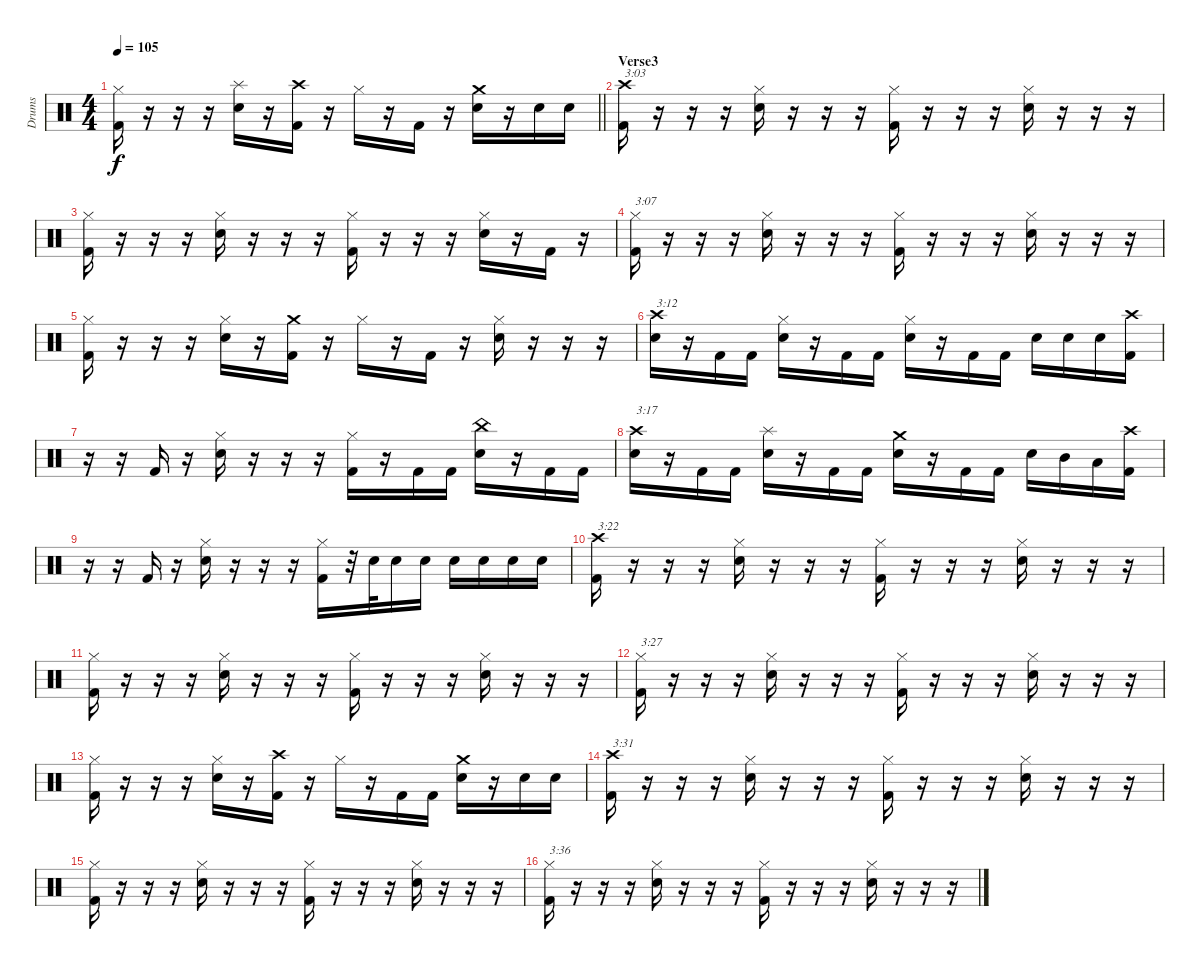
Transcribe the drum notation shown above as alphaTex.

\track ("Drums" "Drums") {instrument percussion}
\staff {score}
\articulation defaults
\ts (4 4)
\tempo 105
\clef neutral
\barLineRight lightlight
\ks c
("Hi-Hat (closed)" "Kick (hit) 2").16{dy f} r.16 r.16 r.16 ("Splash (hit)" "Electric Snare (hit)").16 r.16 ("Crash high (hit)" "Kick (hit) 2").16 r.16 "Hi-Hat (closed)".16 r.16 "Kick (hit) 2".16 r.16 ("Crash medium (hit)" "Electric Snare (hit)").16 r.16 "Electric Snare (hit)".16 "Electric Snare (hit)".16 |
\section ("" "Verse3")
("Crash high (hit)" "Kick (hit) 2").16{txt "3:03"} r.16 r.16 r.16 ("Hi-Hat (closed)" "Electric Snare (hit)").16 r.16 r.16 r.16 ("Hi-Hat (closed)" "Kick (hit) 2").16 r.16 r.16 r.16 ("Hi-Hat (closed)" "Electric Snare (hit)").16 r.16 r.16 r.16 |
("Hi-Hat (closed)" "Kick (hit) 2").16 r.16 r.16 r.16 ("Hi-Hat (closed)" "Electric Snare (hit)").16 r.16 r.16 r.16 ("Hi-Hat (closed)" "Kick (hit) 2").16 r.16 r.16 r.16 ("Hi-Hat (closed)" "Electric Snare (hit)").16 r.16 "Kick (hit) 2".16 r.16 |
("Hi-Hat (closed)" "Kick (hit) 2").16{txt "3:07"} r.16 r.16 r.16 ("Hi-Hat (closed)" "Electric Snare (hit)").16 r.16 r.16 r.16 ("Hi-Hat (closed)" "Kick (hit) 2").16 r.16 r.16 r.16 ("Hi-Hat (closed)" "Electric Snare (hit)").16 r.16 r.16 r.16 |
("Hi-Hat (closed)" "Kick (hit) 2").16 r.16 r.16 r.16 ("Hi-Hat (closed)" "Electric Snare (hit)").16 r.16 ("Crash medium (hit)" "Kick (hit) 2").16 r.16 "Hi-Hat (closed)".16 r.16 "Kick (hit) 2".16 r.16 ("Hi-Hat (closed)" "Electric Snare (hit)").16 r.16 r.16 r.16 |
("Crash high (hit)" "Electric Snare (hit)").16{txt "3:12"} r.16 "Kick (hit) 2".16 "Kick (hit) 2".16 ("Hi-Hat (closed)" "Electric Snare (hit)").16 r.16 "Kick (hit) 2".16 "Kick (hit) 2".16 ("Hi-Hat (closed)" "Electric Snare (hit)").16 r.16 "Kick (hit) 2".16 "Kick (hit) 2".16 "Electric Snare (hit)".16 "Electric Snare (hit)".16 "Electric Snare (hit)".16 ("Crash high (hit)" "Kick (hit) 2").16 |
r.16 r.16 "Kick (hit) 2".16 r.16 ("Hi-Hat (closed)" "Electric Snare (hit)").16 r.16 r.16 r.16 ("Hi-Hat (closed)" "Kick (hit) 2").16 r.16 "Kick (hit) 2".16 "Kick (hit) 2".16 ("China (hit)" "Electric Snare (hit)").16 r.16 "Kick (hit) 2".16 "Kick (hit) 2".16 |
("Crash high (hit)" "Electric Snare (hit)").16{txt "3:17"} r.16 "Kick (hit) 2".16 "Kick (hit) 2".16 ("Splash (hit)" "Electric Snare (hit)").16 r.16 "Kick (hit) 2".16 "Kick (hit) 2".16 ("Crash medium (hit)" "Electric Snare (hit)").16 r.16 "Kick (hit) 2".16 "Kick (hit) 2".16 "Electric Snare (hit)".16 "Mid Tom (hit)".16 "Low Tom (hit)".16 ("Crash high (hit)" "Kick (hit) 2").16 |
r.16 r.16 "Kick (hit) 2".16 r.16 ("Hi-Hat (closed)" "Electric Snare (hit)").16 r.16 r.16 r.16 ("Hi-Hat (closed)" "Kick (hit) 2").16 r.32 "Electric Snare (hit)".32 "Electric Snare (hit)".16 "Electric Snare (hit)".16 "Electric Snare (hit)".16 "Electric Snare (hit)".16 "Electric Snare (hit)".16 "Electric Snare (hit)".16 |
("Crash high (hit)" "Kick (hit) 2").16{txt "3:22"} r.16 r.16 r.16 ("Hi-Hat (closed)" "Electric Snare (hit)").16 r.16 r.16 r.16 ("Hi-Hat (closed)" "Kick (hit) 2").16 r.16 r.16 r.16 ("Hi-Hat (closed)" "Electric Snare (hit)").16 r.16 r.16 r.16 |
("Hi-Hat (closed)" "Kick (hit) 2").16 r.16 r.16 r.16 ("Hi-Hat (closed)" "Electric Snare (hit)").16 r.16 r.16 r.16 ("Hi-Hat (closed)" "Kick (hit) 2").16 r.16 r.16 r.16 ("Hi-Hat (closed)" "Electric Snare (hit)").16 r.16 r.16 r.16 |
("Hi-Hat (closed)" "Kick (hit) 2").16{txt "3:27"} r.16 r.16 r.16 ("Hi-Hat (closed)" "Electric Snare (hit)").16 r.16 r.16 r.16 ("Hi-Hat (closed)" "Kick (hit) 2").16 r.16 r.16 r.16 ("Hi-Hat (closed)" "Electric Snare (hit)").16 r.16 r.16 r.16 |
("Hi-Hat (closed)" "Kick (hit) 2").16 r.16 r.16 r.16 ("Hi-Hat (closed)" "Electric Snare (hit)").16 r.16 ("Crash high (hit)" "Kick (hit) 2").16 r.16 "Hi-Hat (closed)".16 r.16 "Kick (hit) 2".16 "Kick (hit) 2".16 ("Crash medium (hit)" "Electric Snare (hit)").16 r.16 "Electric Snare (hit)".16 "Electric Snare (hit)".16 |
("Crash high (hit)" "Kick (hit) 2").16{txt "3:31"} r.16 r.16 r.16 ("Hi-Hat (closed)" "Electric Snare (hit)").16 r.16 r.16 r.16 ("Hi-Hat (closed)" "Kick (hit) 2").16 r.16 r.16 r.16 ("Hi-Hat (closed)" "Electric Snare (hit)").16 r.16 r.16 r.16 |
("Hi-Hat (closed)" "Kick (hit) 2").16 r.16 r.16 r.16 ("Hi-Hat (closed)" "Electric Snare (hit)").16 r.16 r.16 r.16 ("Hi-Hat (closed)" "Kick (hit) 2").16 r.16 r.16 r.16 ("Hi-Hat (closed)" "Electric Snare (hit)").16 r.16 r.16 r.16 |
("Hi-Hat (closed)" "Kick (hit) 2").16{txt "3:36"} r.16 r.16 r.16 ("Hi-Hat (closed)" "Electric Snare (hit)").16 r.16 r.16 r.16 ("Hi-Hat (closed)" "Kick (hit) 2").16 r.16 r.16 r.16 ("Hi-Hat (closed)" "Electric Snare (hit)").16 r.16 r.16 r.16
